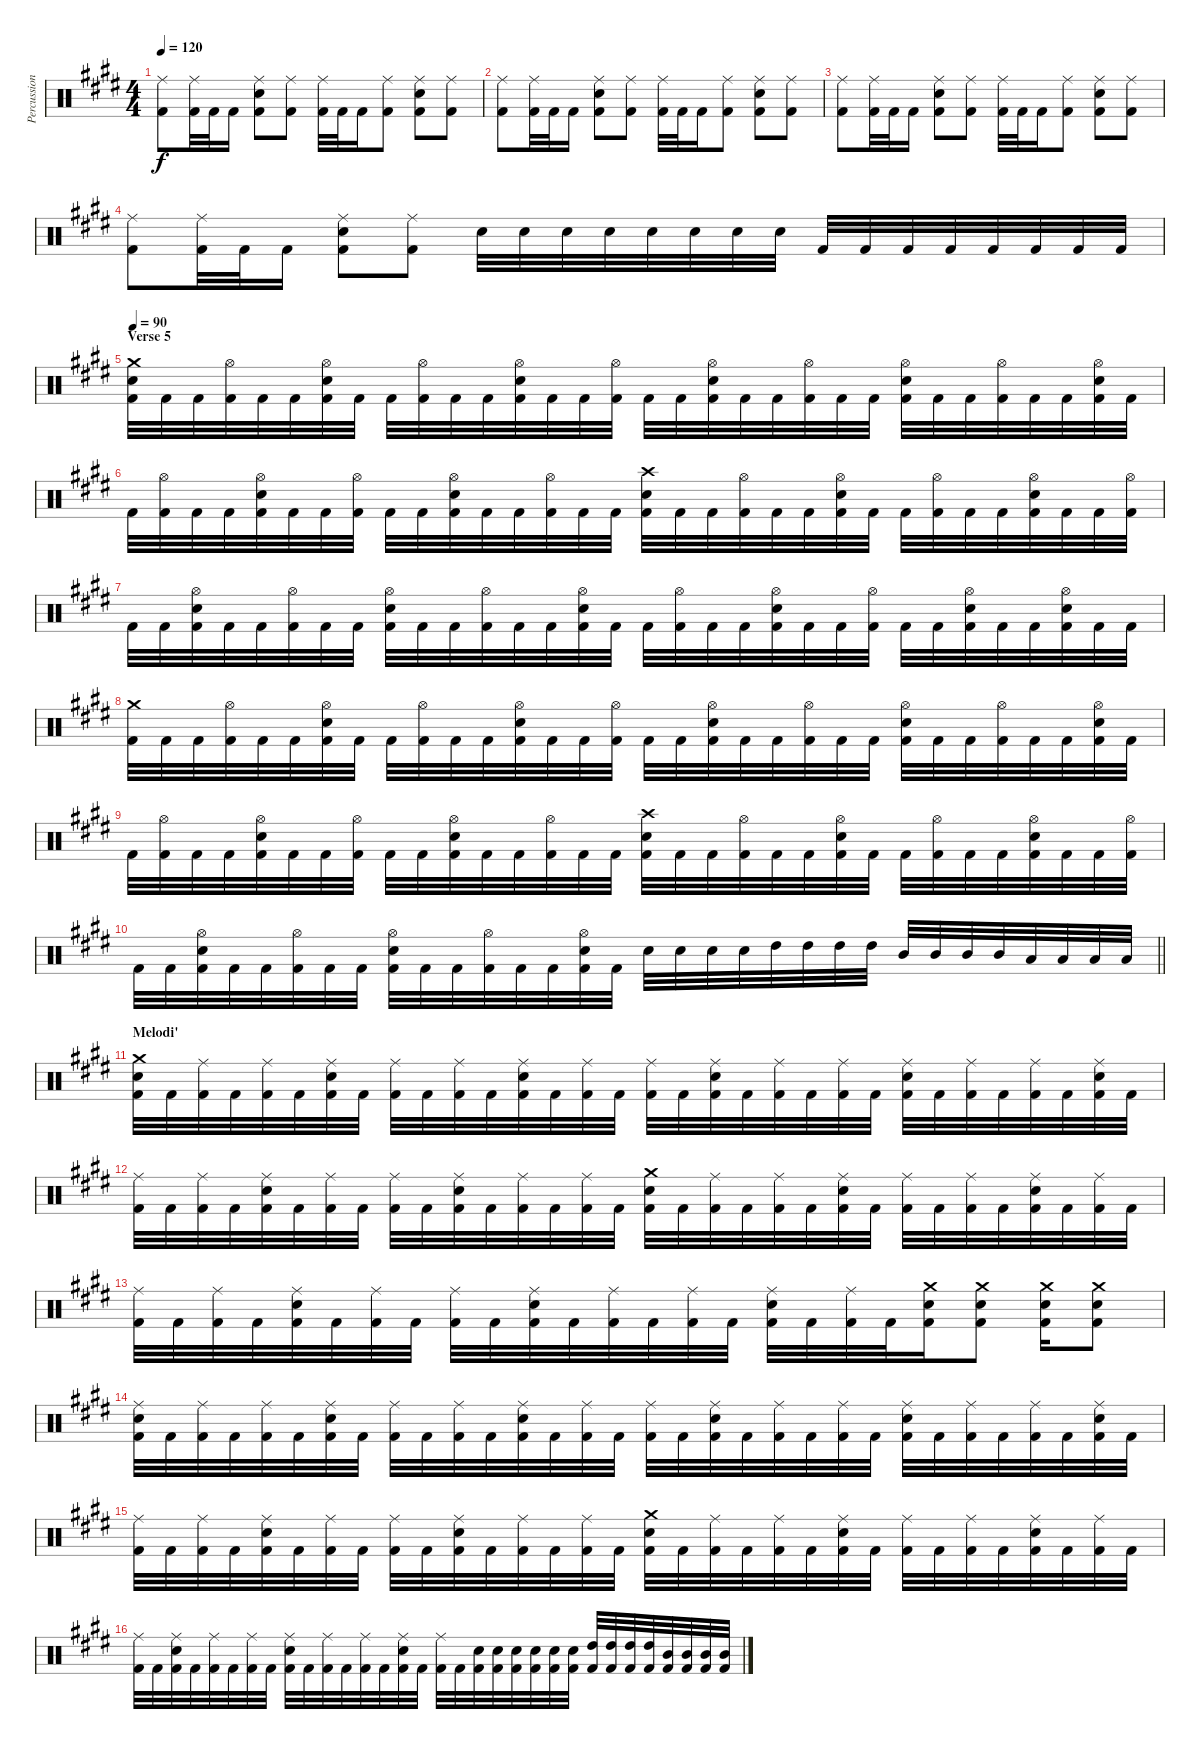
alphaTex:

\track ("Percussion" "Percussion") {instrument percussion}
\staff {score}
\articulation defaults
\ts (4 4)
\tempo 120
\clef neutral
\ks c#minor
("Ride (middle)" "Kick (hit) 2").8{dy f volume 16} ("Ride (middle)" "Kick (hit) 2").32 "Kick (hit) 2".32 "Kick (hit) 2".16 ("Ride (middle)" "Snare (hit) 2" "Kick (hit) 2").8 ("Ride (middle)" "Kick (hit) 2").8 ("Ride (middle)" "Kick (hit) 2").32 "Kick (hit) 2".32 "Kick (hit) 2".16 ("Ride (middle)" "Kick (hit) 2").8 ("Ride (middle)" "Snare (hit) 2" "Kick (hit) 2").8 ("Ride (middle)" "Kick (hit) 2").8 |
("Ride (middle)" "Kick (hit) 2").8 ("Ride (middle)" "Kick (hit) 2").32 "Kick (hit) 2".32 "Kick (hit) 2".16 ("Ride (middle)" "Snare (hit) 2" "Kick (hit) 2").8 ("Ride (middle)" "Kick (hit) 2").8 ("Ride (middle)" "Kick (hit) 2").32 "Kick (hit) 2".32 "Kick (hit) 2".16 ("Ride (middle)" "Kick (hit) 2").8 ("Ride (middle)" "Snare (hit) 2" "Kick (hit) 2").8 ("Ride (middle)" "Kick (hit) 2").8 |
("Ride (middle)" "Kick (hit) 2").8 ("Ride (middle)" "Kick (hit) 2").32 "Kick (hit) 2".32 "Kick (hit) 2".16 ("Ride (middle)" "Snare (hit) 2" "Kick (hit) 2").8 ("Ride (middle)" "Kick (hit) 2").8 ("Ride (middle)" "Kick (hit) 2").32 "Kick (hit) 2".32 "Kick (hit) 2".16 ("Ride (middle)" "Kick (hit) 2").8 ("Ride (middle)" "Snare (hit) 2" "Kick (hit) 2").8 ("Ride (middle)" "Kick (hit) 2").8 |
("Ride (middle)" "Kick (hit) 2").8 ("Ride (middle)" "Kick (hit) 2").32 "Kick (hit) 2".32 "Kick (hit) 2".16 ("Ride (middle)" "Snare (hit) 2" "Kick (hit) 2").8 ("Ride (middle)" "Kick (hit) 2").8 "Snare (hit) 2".32 "Snare (hit) 2".32 "Snare (hit) 2".32 "Snare (hit) 2".32 "Snare (hit) 2".32 "Snare (hit) 2".32 "Snare (hit) 2".32 "Snare (hit) 2".32 "Kick (hit) 2".32 "Kick (hit) 2".32 "Kick (hit) 2".32 "Kick (hit) 2".32 "Kick (hit) 2".32 "Kick (hit) 2".32 "Kick (hit) 2".32 "Kick (hit) 2".32 |
\section ("" "Verse 5")
\tempo 90
("Crash medium (hit)" "Snare (hit) 2" "Kick (hit) 2").32 "Kick (hit) 2".32 "Kick (hit) 2".32 ("Hi-Hat (open)" "Kick (hit) 2").32 "Kick (hit) 2".32 "Kick (hit) 2".32 ("Hi-Hat (open)" "Snare (hit) 2" "Kick (hit) 2").32 "Kick (hit) 2".32 "Kick (hit) 2".32 ("Hi-Hat (open)" "Kick (hit) 2").32 "Kick (hit) 2".32 "Kick (hit) 2".32 ("Hi-Hat (open)" "Snare (hit) 2" "Kick (hit) 2").32 "Kick (hit) 2".32 "Kick (hit) 2".32 ("Hi-Hat (open)" "Kick (hit) 2").32 "Kick (hit) 2".32 "Kick (hit) 2".32 ("Hi-Hat (open)" "Snare (hit) 2" "Kick (hit) 2").32 "Kick (hit) 2".32 "Kick (hit) 2".32 ("Hi-Hat (open)" "Kick (hit) 2").32 "Kick (hit) 2".32 "Kick (hit) 2".32 ("Hi-Hat (open)" "Snare (hit) 2" "Kick (hit) 2").32 "Kick (hit) 2".32 "Kick (hit) 2".32 ("Hi-Hat (open)" "Kick (hit) 2").32 "Kick (hit) 2".32 "Kick (hit) 2".32 ("Hi-Hat (open)" "Snare (hit) 2" "Kick (hit) 2").32 "Kick (hit) 2".32 |
"Kick (hit) 2".32 ("Hi-Hat (open)" "Kick (hit) 2").32 "Kick (hit) 2".32 "Kick (hit) 2".32 ("Hi-Hat (open)" "Snare (hit) 2" "Kick (hit) 2").32 "Kick (hit) 2".32 "Kick (hit) 2".32 ("Hi-Hat (open)" "Kick (hit) 2").32 "Kick (hit) 2".32 "Kick (hit) 2".32 ("Hi-Hat (open)" "Snare (hit) 2" "Kick (hit) 2").32 "Kick (hit) 2".32 "Kick (hit) 2".32 ("Hi-Hat (open)" "Kick (hit) 2").32 "Kick (hit) 2".32 "Kick (hit) 2".32 ("Crash high (hit)" "Snare (hit) 2" "Kick (hit) 2").32 "Kick (hit) 2".32 "Kick (hit) 2".32 ("Hi-Hat (open)" "Kick (hit) 2").32 "Kick (hit) 2".32 "Kick (hit) 2".32 ("Hi-Hat (open)" "Snare (hit) 2" "Kick (hit) 2").32 "Kick (hit) 2".32 "Kick (hit) 2".32 ("Hi-Hat (open)" "Kick (hit) 2").32 "Kick (hit) 2".32 "Kick (hit) 2".32 ("Hi-Hat (open)" "Snare (hit) 2" "Kick (hit) 2").32 "Kick (hit) 2".32 "Kick (hit) 2".32 ("Hi-Hat (open)" "Kick (hit) 2").32 |
"Kick (hit) 2".32 "Kick (hit) 2".32 ("Hi-Hat (open)" "Snare (hit) 2" "Kick (hit) 2").32 "Kick (hit) 2".32 "Kick (hit) 2".32 ("Hi-Hat (open)" "Kick (hit) 2").32 "Kick (hit) 2".32 "Kick (hit) 2".32 ("Hi-Hat (open)" "Snare (hit) 2" "Kick (hit) 2").32 "Kick (hit) 2".32 "Kick (hit) 2".32 ("Hi-Hat (open)" "Kick (hit) 2").32 "Kick (hit) 2".32 "Kick (hit) 2".32 ("Hi-Hat (open)" "Snare (hit) 2" "Kick (hit) 2").32 "Kick (hit) 2".32 "Kick (hit) 2".32 ("Hi-Hat (open)" "Kick (hit) 2").32 "Kick (hit) 2".32 "Kick (hit) 2".32 ("Hi-Hat (open)" "Snare (hit) 2" "Kick (hit) 2").32 "Kick (hit) 2".32 "Kick (hit) 2".32 ("Hi-Hat (open)" "Kick (hit) 2").32 "Kick (hit) 2".32 "Kick (hit) 2".32 ("Hi-Hat (open)" "Snare (hit) 2" "Kick (hit) 2").32 "Kick (hit) 2".32 "Kick (hit) 2".32 ("Hi-Hat (open)" "Snare (hit) 2" "Kick (hit) 2").32 "Kick (hit) 2".32 "Kick (hit) 2".32 |
("Crash medium (hit)" "Kick (hit) 2").32 "Kick (hit) 2".32 "Kick (hit) 2".32 ("Hi-Hat (open)" "Kick (hit) 2").32 "Kick (hit) 2".32 "Kick (hit) 2".32 ("Hi-Hat (open)" "Snare (hit) 2" "Kick (hit) 2").32 "Kick (hit) 2".32 "Kick (hit) 2".32 ("Hi-Hat (open)" "Kick (hit) 2").32 "Kick (hit) 2".32 "Kick (hit) 2".32 ("Hi-Hat (open)" "Snare (hit) 2" "Kick (hit) 2").32 "Kick (hit) 2".32 "Kick (hit) 2".32 ("Hi-Hat (open)" "Kick (hit) 2").32 "Kick (hit) 2".32 "Kick (hit) 2".32 ("Hi-Hat (open)" "Snare (hit) 2" "Kick (hit) 2").32 "Kick (hit) 2".32 "Kick (hit) 2".32 ("Hi-Hat (open)" "Kick (hit) 2").32 "Kick (hit) 2".32 "Kick (hit) 2".32 ("Hi-Hat (open)" "Snare (hit) 2" "Kick (hit) 2").32 "Kick (hit) 2".32 "Kick (hit) 2".32 ("Hi-Hat (open)" "Kick (hit) 2").32 "Kick (hit) 2".32 "Kick (hit) 2".32 ("Hi-Hat (open)" "Snare (hit) 2" "Kick (hit) 2").32 "Kick (hit) 2".32 |
"Kick (hit) 2".32 ("Hi-Hat (open)" "Kick (hit) 2").32 "Kick (hit) 2".32 "Kick (hit) 2".32 ("Hi-Hat (open)" "Snare (hit) 2" "Kick (hit) 2").32 "Kick (hit) 2".32 "Kick (hit) 2".32 ("Hi-Hat (open)" "Kick (hit) 2").32 "Kick (hit) 2".32 "Kick (hit) 2".32 ("Hi-Hat (open)" "Snare (hit) 2" "Kick (hit) 2").32 "Kick (hit) 2".32 "Kick (hit) 2".32 ("Hi-Hat (open)" "Kick (hit) 2").32 "Kick (hit) 2".32 "Kick (hit) 2".32 ("Crash high (hit)" "Snare (hit) 2" "Kick (hit) 2").32 "Kick (hit) 2".32 "Kick (hit) 2".32 ("Hi-Hat (open)" "Kick (hit) 2").32 "Kick (hit) 2".32 "Kick (hit) 2".32 ("Hi-Hat (open)" "Snare (hit) 2" "Kick (hit) 2").32 "Kick (hit) 2".32 "Kick (hit) 2".32 ("Hi-Hat (open)" "Kick (hit) 2").32 "Kick (hit) 2".32 "Kick (hit) 2".32 ("Hi-Hat (open)" "Snare (hit) 2" "Kick (hit) 2").32 "Kick (hit) 2".32 "Kick (hit) 2".32 ("Hi-Hat (open)" "Kick (hit) 2").32 |
\barLineRight lightlight "Kick (hit) 2".32 "Kick (hit) 2".32
("Hi-Hat (open)" "Snare (hit) 2" "Kick (hit) 2").32 "Kick (hit) 2".32 "Kick (hit) 2".32 ("Hi-Hat (open)" "Kick (hit) 2").32 "Kick (hit) 2".32 "Kick (hit) 2".32 ("Hi-Hat (open)" "Snare (hit) 2" "Kick (hit) 2").32 "Kick (hit) 2".32 "Kick (hit) 2".32 ("Hi-Hat (open)" "Kick (hit) 2").32 "Kick (hit) 2".32 "Kick (hit) 2".32 ("Hi-Hat (open)" "Snare (hit) 2" "Kick (hit) 2").32 "Kick (hit) 2".32 "Snare (hit) 2".32 "Snare (hit) 2".32 "Snare (hit) 2".32 "Snare (hit) 2".32 "High Tom (hit)".32 "High Tom (hit)".32 "High Tom (hit)".32 "High Tom (hit)".32 "Mid Tom (hit)".32 "Mid Tom (hit)".32 "Mid Tom (hit)".32 "Mid Tom (hit)".32 "Low Tom (hit)".32 "Low Tom (hit)".32 "Low Tom (hit)".32 "Low Tom (hit)".32 |
\section ("" "Melodi'")
("Crash medium (hit)" "Snare (hit) 2" "Kick (hit) 2").32 "Kick (hit) 2".32 ("Ride (middle)" "Kick (hit) 2").32 "Kick (hit) 2".32 ("Ride (middle)" "Kick (hit) 2").32 "Kick (hit) 2".32 ("Ride (middle)" "Snare (hit) 2" "Kick (hit) 2").32 "Kick (hit) 2".32 ("Ride (middle)" "Kick (hit) 2").32 "Kick (hit) 2".32 ("Ride (middle)" "Kick (hit) 2").32 "Kick (hit) 2".32 ("Ride (middle)" "Snare (hit) 2" "Kick (hit) 2").32 "Kick (hit) 2".32 ("Ride (middle)" "Kick (hit) 2").32 "Kick (hit) 2".32 ("Ride (middle)" "Kick (hit) 2").32 "Kick (hit) 2".32 ("Ride (middle)" "Snare (hit) 2" "Kick (hit) 2").32 "Kick (hit) 2".32 ("Ride (middle)" "Kick (hit) 2").32 "Kick (hit) 2".32 ("Ride (middle)" "Kick (hit) 2").32 "Kick (hit) 2".32 ("Ride (middle)" "Snare (hit) 2" "Kick (hit) 2").32 "Kick (hit) 2".32 ("Ride (middle)" "Kick (hit) 2").32 "Kick (hit) 2".32 ("Ride (middle)" "Kick (hit) 2").32 "Kick (hit) 2".32 ("Ride (middle)" "Snare (hit) 2" "Kick (hit) 2").32 "Kick (hit) 2".32 |
("Ride (middle)" "Kick (hit) 2").32 "Kick (hit) 2".32 ("Ride (middle)" "Kick (hit) 2").32 "Kick (hit) 2".32 ("Ride (middle)" "Snare (hit) 2" "Kick (hit) 2").32 "Kick (hit) 2".32 ("Ride (middle)" "Kick (hit) 2").32 "Kick (hit) 2".32 ("Ride (middle)" "Kick (hit) 2").32 "Kick (hit) 2".32 ("Ride (middle)" "Snare (hit) 2" "Kick (hit) 2").32 "Kick (hit) 2".32 ("Ride (middle)" "Kick (hit) 2").32 "Kick (hit) 2".32 ("Ride (middle)" "Kick (hit) 2").32 "Kick (hit) 2".32 ("Crash medium (hit)" "Snare (hit) 2" "Kick (hit) 2").32 "Kick (hit) 2".32 ("Ride (middle)" "Kick (hit) 2").32 "Kick (hit) 2".32 ("Ride (middle)" "Kick (hit) 2").32 "Kick (hit) 2".32 ("Ride (middle)" "Snare (hit) 2" "Kick (hit) 2").32 "Kick (hit) 2".32 ("Ride (middle)" "Kick (hit) 2").32 "Kick (hit) 2".32 ("Ride (middle)" "Kick (hit) 2").32 "Kick (hit) 2".32 ("Ride (middle)" "Snare (hit) 2" "Kick (hit) 2").32 "Kick (hit) 2".32 ("Ride (middle)" "Kick (hit) 2").32 "Kick (hit) 2".32 |
("Ride (middle)" "Kick (hit) 2").32 "Kick (hit) 2".32 ("Ride (middle)" "Kick (hit) 2").32 "Kick (hit) 2".32 ("Ride (middle)" "Snare (hit) 2" "Kick (hit) 2").32 "Kick (hit) 2".32 ("Ride (middle)" "Kick (hit) 2").32 "Kick (hit) 2".32 ("Ride (middle)" "Kick (hit) 2").32 "Kick (hit) 2".32 ("Ride (middle)" "Snare (hit) 2" "Kick (hit) 2").32 "Kick (hit) 2".32 ("Ride (middle)" "Kick (hit) 2").32 "Kick (hit) 2".32 ("Ride (middle)" "Kick (hit) 2").32 "Kick (hit) 2".32 ("Ride (middle)" "Snare (hit) 2" "Kick (hit) 2").32 "Kick (hit) 2".32 ("Ride (middle)" "Kick (hit) 2").32 "Kick (hit) 2".32 ("Crash medium (hit)" "Snare (hit) 2" "Kick (hit) 2").16 ("Crash medium (hit)" "Snare (hit) 2" "Kick (hit) 2").8 ("Crash medium (hit)" "Snare (hit) 2" "Kick (hit) 2").16 ("Crash medium (hit)" "Snare (hit) 2" "Kick (hit) 2").8 |
("Ride (middle)" "Snare (hit) 2" "Kick (hit) 2").32 "Kick (hit) 2".32 ("Ride (middle)" "Kick (hit) 2").32 "Kick (hit) 2".32 ("Ride (middle)" "Kick (hit) 2").32 "Kick (hit) 2".32 ("Ride (middle)" "Snare (hit) 2" "Kick (hit) 2").32 "Kick (hit) 2".32 ("Ride (middle)" "Kick (hit) 2").32 "Kick (hit) 2".32 ("Ride (middle)" "Kick (hit) 2").32 "Kick (hit) 2".32 ("Ride (middle)" "Snare (hit) 2" "Kick (hit) 2").32 "Kick (hit) 2".32 ("Ride (middle)" "Kick (hit) 2").32 "Kick (hit) 2".32 ("Ride (middle)" "Kick (hit) 2").32 "Kick (hit) 2".32 ("Ride (middle)" "Snare (hit) 2" "Kick (hit) 2").32 "Kick (hit) 2".32 ("Ride (middle)" "Kick (hit) 2").32 "Kick (hit) 2".32 ("Ride (middle)" "Kick (hit) 2").32 "Kick (hit) 2".32 ("Ride (middle)" "Snare (hit) 2" "Kick (hit) 2").32 "Kick (hit) 2".32 ("Ride (middle)" "Kick (hit) 2").32 "Kick (hit) 2".32 ("Ride (middle)" "Kick (hit) 2").32 "Kick (hit) 2".32 ("Ride (middle)" "Snare (hit) 2" "Kick (hit) 2").32 "Kick (hit) 2".32 |
("Ride (middle)" "Kick (hit) 2").32 "Kick (hit) 2".32 ("Ride (middle)" "Kick (hit) 2").32 "Kick (hit) 2".32 ("Ride (middle)" "Snare (hit) 2" "Kick (hit) 2").32 "Kick (hit) 2".32 ("Ride (middle)" "Kick (hit) 2").32 "Kick (hit) 2".32 ("Ride (middle)" "Kick (hit) 2").32 "Kick (hit) 2".32 ("Ride (middle)" "Snare (hit) 2" "Kick (hit) 2").32 "Kick (hit) 2".32 ("Ride (middle)" "Kick (hit) 2").32 "Kick (hit) 2".32 ("Ride (middle)" "Kick (hit) 2").32 "Kick (hit) 2".32 ("Crash medium (hit)" "Snare (hit) 2" "Kick (hit) 2").32 "Kick (hit) 2".32 ("Ride (middle)" "Kick (hit) 2").32 "Kick (hit) 2".32 ("Ride (middle)" "Kick (hit) 2").32 "Kick (hit) 2".32 ("Ride (middle)" "Snare (hit) 2" "Kick (hit) 2").32 "Kick (hit) 2".32 ("Ride (middle)" "Kick (hit) 2").32 "Kick (hit) 2".32 ("Ride (middle)" "Kick (hit) 2").32 "Kick (hit) 2".32 ("Ride (middle)" "Snare (hit) 2" "Kick (hit) 2").32 "Kick (hit) 2".32 ("Ride (middle)" "Kick (hit) 2").32 "Kick (hit) 2".32 |
("Ride (middle)" "Kick (hit) 2").32 "Kick (hit) 2".32 ("Ride (middle)" "Snare (hit) 2" "Kick (hit) 2").32 "Kick (hit) 2".32 ("Ride (middle)" "Kick (hit) 2").32 "Kick (hit) 2".32 ("Ride (middle)" "Kick (hit) 2").32 "Kick (hit) 2".32 ("Ride (middle)" "Snare (hit) 2" "Kick (hit) 2").32 "Kick (hit) 2".32 ("Ride (middle)" "Kick (hit) 2").32 "Kick (hit) 2".32 ("Ride (middle)" "Kick (hit) 2").32 "Kick (hit) 2".32 ("Ride (middle)" "Snare (hit) 2" "Kick (hit) 2").32 "Kick (hit) 2".32 ("Ride (middle)" "Kick (hit) 2").32 "Kick (hit) 2".32 ("Snare (hit) 2" "Kick (hit) 2").32 ("Snare (hit) 2" "Kick (hit) 2").32 ("Snare (hit) 2" "Kick (hit) 2").32 ("Snare (hit) 2" "Kick (hit) 2").32 ("Snare (hit) 2" "Kick (hit) 2").32 ("Snare (hit) 2" "Kick (hit) 2").32 ("High Tom (hit)" "Kick (hit) 2").32 ("High Tom (hit)" "Kick (hit) 2").32 ("High Tom (hit)" "Kick (hit) 2").32 ("High Tom (hit)" "Kick (hit) 2").32 ("Mid Tom (hit)" "Kick (hit) 2").32 ("Mid Tom (hit)" "Kick (hit) 2").32 ("Mid Tom (hit)" "Kick (hit) 2").32 ("Mid Tom (hit)" "Kick (hit) 2").32
